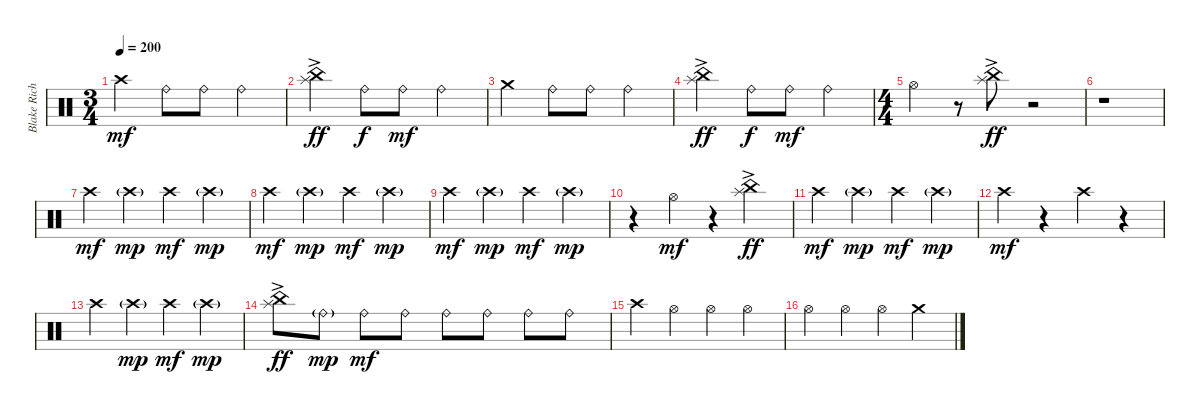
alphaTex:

\track ("Blake Richardson Drums" "Blake Rich") {instrument percussion}
\staff {score}
\articulation defaults
\ts (3 4)
\tempo 200
\clef neutral
\ks c "Crash high (hit)".4{dy mf} "Ride (bell)".8 "Ride (bell)".8 "Ride (bell)".4
|
("China (hit)" "Splash (hit)"{ac}).4{dy ff} "Ride (bell)".8{dy f} "Ride (bell)".8{dy mf} "Ride (bell)".4 |
"Crash medium (hit)".4 "Ride (bell)".8 "Ride (bell)".8 "Ride (bell)".4 |
("China (hit)" "Splash (hit)"{ac}).4{dy ff} "Ride (bell)".8{dy f} "Ride (bell)".8{dy mf} "Ride (bell)".4 |
\ts (4 4)
"Hi-Hat (open)".4 r.8 ("China (hit)" "Splash (hit)"{ac}).8{dy ff} r.2 |
r.1 |
"Crash high (hit)".4{dy mf} "Crash high (hit)"{g}.4{dy mp} "Crash high (hit)".4{dy mf} "Crash high (hit)"{g}.4{dy mp} |
"Crash high (hit)".4{dy mf} "Crash high (hit)"{g}.4{dy mp} "Crash high (hit)".4{dy mf} "Crash high (hit)"{g}.4{dy mp} |
"Crash high (hit)".4{dy mf} "Crash high (hit)"{g}.4{dy mp} "Crash high (hit)".4{dy mf} "Crash high (hit)"{g}.4{dy mp} |
r.4 "Hi-Hat (open)".4{dy mf} r.4 ("China (hit)" "Splash (hit)"{ac}).4{dy ff} |
"Crash high (hit)".4{dy mf} "Crash high (hit)"{g}.4{dy mp} "Crash high (hit)".4{dy mf} "Crash high (hit)"{g}.4{dy mp} |
"Crash high (hit)".4{dy mf} r.4 "Crash high (hit)".4 r.4 |
"Crash high (hit)".4 "Crash high (hit)"{g}.4{dy mp} "Crash high (hit)".4{dy mf} "Crash high (hit)"{g}.4{dy mp} |
("China (hit)" "Splash (hit)"{ac}).8{dy ff} "Ride (bell)"{g}.8{dy mp} "Ride (bell)".8{dy mf} "Ride (bell)".8 "Ride (bell)".8 "Ride (bell)".8 "Ride (bell)".8 "Ride (bell)".8 |
"Crash high (hit)".4 "Hi-Hat (open)".4 "Hi-Hat (open)".4 "Hi-Hat (open)".4 |
"Hi-Hat (open)".4 "Hi-Hat (open)".4 "Hi-Hat (open)".4 "Crash medium (hit)".4
